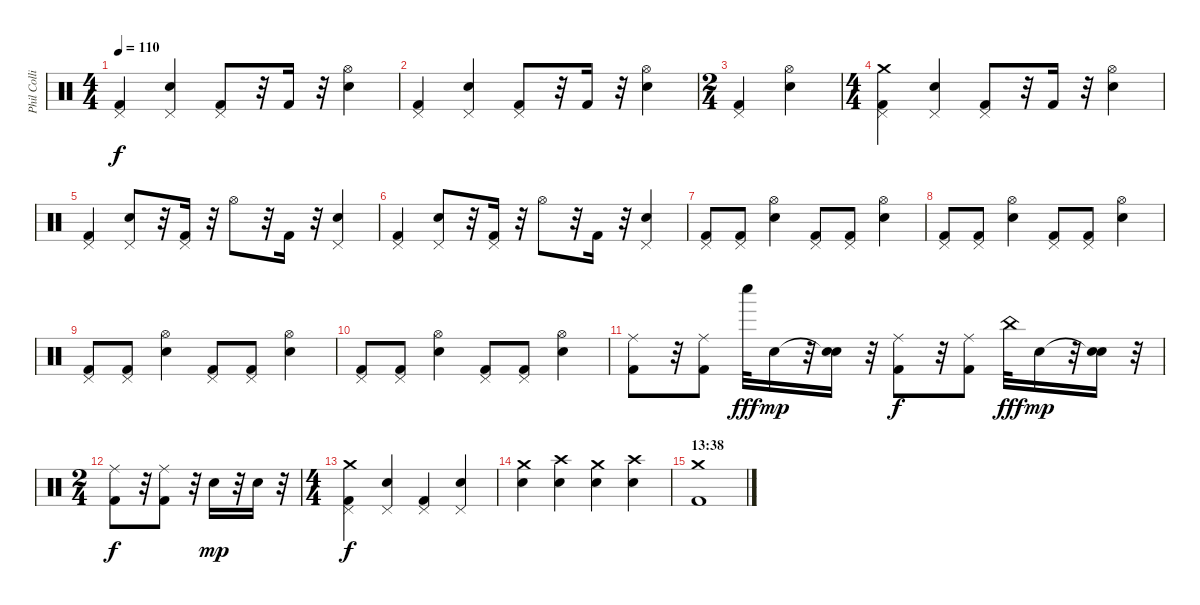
\track ("Phil Collins (drums)" "Phil Colli") {instrument percussion}
\staff {score}
\articulation defaults
\ts (4 4)
\tempo 110
\clef neutral
\ks c
("Pedal Hi-Hat (hit)" "Kick (hit) 2").4{dy f} ("Pedal Hi-Hat (hit)" "Electric Snare (hit)").4 ("Pedal Hi-Hat (hit)" "Kick (hit) 2").8 r.32 "Kick (hit) 2".16 r.32 ("Hi-Hat (open)" "Electric Snare (hit)").4 |
("Pedal Hi-Hat (hit)" "Kick (hit) 2").4 ("Pedal Hi-Hat (hit)" "Electric Snare (hit)").4 ("Pedal Hi-Hat (hit)" "Kick (hit) 2").8 r.32 "Kick (hit) 2".16 r.32 ("Hi-Hat (open)" "Electric Snare (hit)").4 |
\ts (2 4)
("Pedal Hi-Hat (hit)" "Kick (hit) 2").4 ("Hi-Hat (open)" "Electric Snare (hit)").4 |
\ts (4 4)
("Crash medium (hit)" "Pedal Hi-Hat (hit)" "Kick (hit) 2").4 ("Pedal Hi-Hat (hit)" "Electric Snare (hit)").4 ("Pedal Hi-Hat (hit)" "Kick (hit) 2").8 r.32 "Kick (hit) 2".16 r.32 ("Hi-Hat (open)" "Electric Snare (hit)").4 |
("Pedal Hi-Hat (hit)" "Kick (hit) 2").4 ("Pedal Hi-Hat (hit)" "Electric Snare (hit)").8 r.32 ("Pedal Hi-Hat (hit)" "Kick (hit) 2").16 r.32 "Hi-Hat (open)".8 r.32 "Kick (hit) 2".16 r.32 ("Pedal Hi-Hat (hit)" "Electric Snare (hit)").4 |
("Pedal Hi-Hat (hit)" "Kick (hit) 2").4 ("Pedal Hi-Hat (hit)" "Electric Snare (hit)").8 r.32 ("Pedal Hi-Hat (hit)" "Kick (hit) 2").16 r.32 "Hi-Hat (open)".8 r.32 "Kick (hit) 2".16 r.32 ("Pedal Hi-Hat (hit)" "Electric Snare (hit)").4 |
("Pedal Hi-Hat (hit)" "Kick (hit) 2").8 ("Pedal Hi-Hat (hit)" "Kick (hit) 2").8 ("Hi-Hat (open)" "Electric Snare (hit)").4 ("Pedal Hi-Hat (hit)" "Kick (hit) 2").8 ("Pedal Hi-Hat (hit)" "Kick (hit) 2").8 ("Hi-Hat (open)" "Electric Snare (hit)").4 |
("Pedal Hi-Hat (hit)" "Kick (hit) 2").8 ("Pedal Hi-Hat (hit)" "Kick (hit) 2").8 ("Hi-Hat (open)" "Electric Snare (hit)").4 ("Pedal Hi-Hat (hit)" "Kick (hit) 2").8 ("Pedal Hi-Hat (hit)" "Kick (hit) 2").8 ("Hi-Hat (open)" "Electric Snare (hit)").4 |
("Pedal Hi-Hat (hit)" "Kick (hit) 2").8 ("Pedal Hi-Hat (hit)" "Kick (hit) 2").8 ("Hi-Hat (open)" "Electric Snare (hit)").4 ("Pedal Hi-Hat (hit)" "Kick (hit) 2").8 ("Pedal Hi-Hat (hit)" "Kick (hit) 2").8 ("Hi-Hat (open)" "Electric Snare (hit)").4 |
("Pedal Hi-Hat (hit)" "Kick (hit) 2").8 ("Pedal Hi-Hat (hit)" "Kick (hit) 2").8 ("Hi-Hat (open)" "Electric Snare (hit)").4 ("Pedal Hi-Hat (hit)" "Kick (hit) 2").8 ("Pedal Hi-Hat (hit)" "Kick (hit) 2").8 ("Hi-Hat (open)" "Electric Snare (hit)").4 |
("Ride (middle)" "Kick (hit) 2").8 r.32 ("Ride (middle)" "Kick (hit) 2").8 "Whistle low (hit)".32{dy fff} "Electric Snare (hit)".16{dy mp} r.32 ("Snare (hit)"{t} "Electric Snare (hit)").16 r.32 ("Ride (middle)" "Kick (hit) 2").8{dy f} r.32 ("Ride (middle)" "Kick (hit) 2").8 "China (hit)".32{dy fff} "Electric Snare (hit)".16{dy mp} r.32 ("Snare (hit)"{t} "Electric Snare (hit)").16 r.32 |
\ts (2 4)
("Ride (middle)" "Kick (hit) 2").8{dy f} r.32 ("Ride (middle)" "Kick (hit) 2").8 r.32 "Electric Snare (hit)".16{dy mp} r.32 "Electric Snare (hit)".16 r.32 |
\ts (4 4)
("Crash medium (hit)" "Pedal Hi-Hat (hit)" "Kick (hit) 2").4{dy f} ("Pedal Hi-Hat (hit)" "Electric Snare (hit)").4 ("Pedal Hi-Hat (hit)" "Kick (hit) 2").4 ("Pedal Hi-Hat (hit)" "Electric Snare (hit)").4 |
("Crash medium (hit)" "Electric Snare (hit)").4 ("Crash high (hit)" "Electric Snare (hit)").4 ("Crash medium (hit)" "Electric Snare (hit)").4 ("Crash high (hit)" "Electric Snare (hit)").4 |
\section ("" "13:38")
("Crash medium (hit)" "Kick (hit) 2").1
